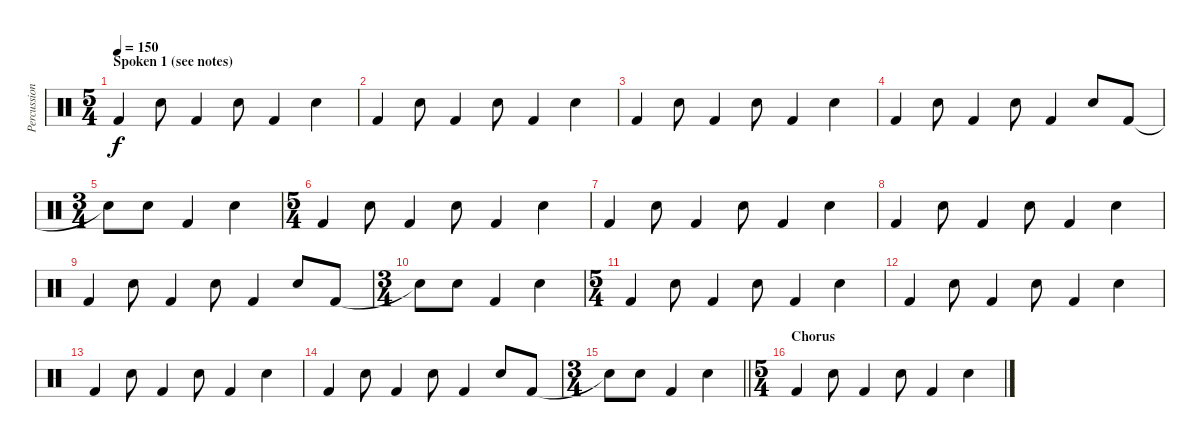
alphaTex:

\track ("Percussion" "Percussion") {instrument percussion}
\staff {score}
\articulation defaults
\ts (5 4)
\section ("" "Spoken 1 (see notes)")
\tempo 150
\clef neutral
\ks c "Kick (hit) 2".4{dy f} "Snare (hit) 2".8 "Kick (hit) 2".4 "Snare (hit) 2".8 "Kick (hit) 2".4 "Snare (hit) 2".4
|
"Kick (hit) 2".4 "Snare (hit) 2".8 "Kick (hit) 2".4 "Snare (hit) 2".8 "Kick (hit) 2".4 "Snare (hit) 2".4 |
"Kick (hit) 2".4 "Snare (hit) 2".8 "Kick (hit) 2".4 "Snare (hit) 2".8 "Kick (hit) 2".4 "Snare (hit) 2".4 |
"Kick (hit) 2".4 "Snare (hit) 2".8 "Kick (hit) 2".4 "Snare (hit) 2".8 "Kick (hit) 2".4 "Snare (hit) 2".8 "Kick (hit) 2".8 |
\ts (3 4)
"Snare (hit)"{t}.8 "Snare (hit) 2".8 "Kick (hit) 2".4 "Snare (hit) 2".4 |
\ts (5 4)
"Kick (hit) 2".4 "Snare (hit) 2".8 "Kick (hit) 2".4 "Snare (hit) 2".8 "Kick (hit) 2".4 "Snare (hit) 2".4 |
"Kick (hit) 2".4 "Snare (hit) 2".8 "Kick (hit) 2".4 "Snare (hit) 2".8 "Kick (hit) 2".4 "Snare (hit) 2".4 |
"Kick (hit) 2".4 "Snare (hit) 2".8 "Kick (hit) 2".4 "Snare (hit) 2".8 "Kick (hit) 2".4 "Snare (hit) 2".4 |
"Kick (hit) 2".4 "Snare (hit) 2".8 "Kick (hit) 2".4 "Snare (hit) 2".8 "Kick (hit) 2".4 "Snare (hit) 2".8 "Kick (hit) 2".8 |
\ts (3 4)
"Snare (hit)"{t}.8 "Snare (hit) 2".8 "Kick (hit) 2".4 "Snare (hit) 2".4 |
\ts (5 4)
"Kick (hit) 2".4 "Snare (hit) 2".8 "Kick (hit) 2".4 "Snare (hit) 2".8 "Kick (hit) 2".4 "Snare (hit) 2".4 |
"Kick (hit) 2".4 "Snare (hit) 2".8 "Kick (hit) 2".4 "Snare (hit) 2".8 "Kick (hit) 2".4 "Snare (hit) 2".4 |
"Kick (hit) 2".4 "Snare (hit) 2".8 "Kick (hit) 2".4 "Snare (hit) 2".8 "Kick (hit) 2".4 "Snare (hit) 2".4 |
"Kick (hit) 2".4 "Snare (hit) 2".8 "Kick (hit) 2".4 "Snare (hit) 2".8 "Kick (hit) 2".4 "Snare (hit) 2".8 "Kick (hit) 2".8 |
\ts (3 4)
\barLineRight lightlight "Snare (hit)"{t}.8 "Snare (hit) 2".8 "Kick (hit) 2".4 "Snare (hit) 2".4
|
\ts (5 4)
\section ("" "Chorus")
"Kick (hit) 2".4 "Snare (hit) 2".8 "Kick (hit) 2".4 "Snare (hit) 2".8 "Kick (hit) 2".4 "Snare (hit) 2".4
